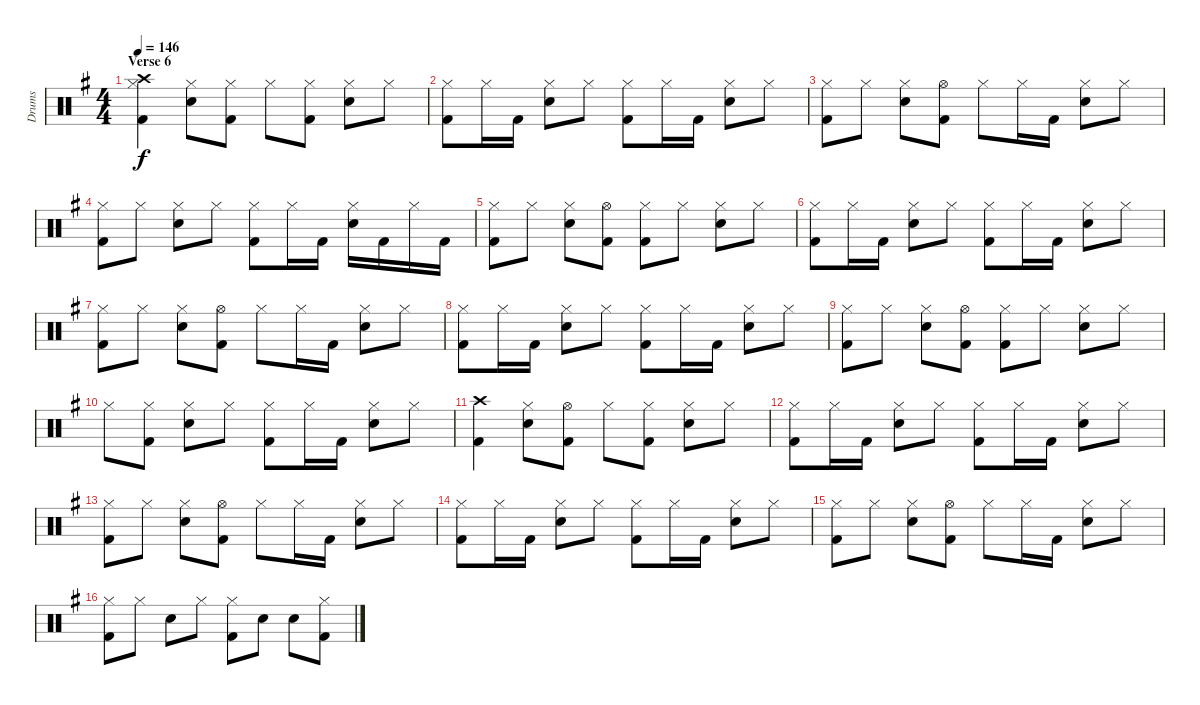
\track ("Drums" "Drums") {instrument percussion}
\staff {score}
\articulation defaults
\ts (4 4)
\section ("" "Verse 6")
\tempo 146
\clef neutral
\ks g
("Kick (hit) 2" "Hi-Hat (closed)" "Crash high (hit)").4{dy f} ("Snare (hit) 2" "Hi-Hat (closed)").8 ("Kick (hit) 2" "Hi-Hat (closed)").8 "Hi-Hat (closed)".8 ("Kick (hit) 2" "Hi-Hat (closed)").8 ("Snare (hit) 2" "Hi-Hat (closed)").8 "Hi-Hat (closed)".8 |
("Kick (hit) 2" "Hi-Hat (closed)").8 "Hi-Hat (closed)".16 "Kick (hit) 2".16 ("Snare (hit) 2" "Hi-Hat (closed)").8 "Hi-Hat (closed)".8 ("Kick (hit) 2" "Hi-Hat (closed)").8 "Hi-Hat (closed)".16 "Kick (hit) 2".16 ("Snare (hit) 2" "Hi-Hat (closed)").8 "Hi-Hat (closed)".8 |
("Kick (hit) 2" "Hi-Hat (closed)").8 "Hi-Hat (closed)".8 ("Snare (hit) 2" "Hi-Hat (closed)").8 ("Kick (hit) 2" "Hi-Hat (open)").8 "Hi-Hat (closed)".8 "Hi-Hat (closed)".16 "Kick (hit) 2".16 ("Snare (hit) 2" "Hi-Hat (closed)").8 "Hi-Hat (closed)".8 |
("Kick (hit) 2" "Hi-Hat (closed)").8 "Hi-Hat (closed)".8 ("Snare (hit) 2" "Hi-Hat (closed)").8 "Hi-Hat (closed)".8 ("Kick (hit) 2" "Hi-Hat (closed)").8 "Hi-Hat (closed)".16 "Kick (hit) 2".16 ("Snare (hit) 2" "Hi-Hat (closed)").16 "Kick (hit) 2".16 "Hi-Hat (closed)".16 "Kick (hit) 2".16 |
("Kick (hit) 2" "Hi-Hat (closed)").8 "Hi-Hat (closed)".8 ("Snare (hit) 2" "Hi-Hat (closed)").8 ("Kick (hit) 2" "Hi-Hat (open)").8 ("Kick (hit) 2" "Hi-Hat (closed)").8 "Hi-Hat (closed)".8 ("Snare (hit) 2" "Hi-Hat (closed)").8 "Hi-Hat (closed)".8 |
("Kick (hit) 2" "Hi-Hat (closed)").8 "Hi-Hat (closed)".16 "Kick (hit) 2".16 ("Snare (hit) 2" "Hi-Hat (closed)").8 "Hi-Hat (closed)".8 ("Kick (hit) 2" "Hi-Hat (closed)").8 "Hi-Hat (closed)".16 "Kick (hit) 2".16 ("Snare (hit) 2" "Hi-Hat (closed)").8 "Hi-Hat (closed)".8 |
("Kick (hit) 2" "Hi-Hat (closed)").8 "Hi-Hat (closed)".8 ("Snare (hit) 2" "Hi-Hat (closed)").8 ("Kick (hit) 2" "Hi-Hat (open)").8 "Hi-Hat (closed)".8 "Hi-Hat (closed)".16 "Kick (hit) 2".16 ("Snare (hit) 2" "Hi-Hat (closed)").8 "Hi-Hat (closed)".8 |
("Kick (hit) 2" "Hi-Hat (closed)").8 "Hi-Hat (closed)".16 "Kick (hit) 2".16 ("Snare (hit) 2" "Hi-Hat (closed)").8 "Hi-Hat (closed)".8 ("Kick (hit) 2" "Hi-Hat (closed)").8 "Hi-Hat (closed)".16 "Kick (hit) 2".16 ("Snare (hit) 2" "Hi-Hat (closed)").8 "Hi-Hat (closed)".8 |
("Kick (hit) 2" "Hi-Hat (closed)").8 "Hi-Hat (closed)".8 ("Snare (hit) 2" "Hi-Hat (closed)").8 ("Kick (hit) 2" "Hi-Hat (open)").8 ("Kick (hit) 2" "Hi-Hat (closed)").8 "Hi-Hat (closed)".8 ("Snare (hit) 2" "Hi-Hat (closed)").8 "Hi-Hat (closed)".8 |
"Hi-Hat (closed)".8 ("Kick (hit) 2" "Hi-Hat (closed)").8 ("Snare (hit) 2" "Hi-Hat (closed)").8 "Hi-Hat (closed)".8 ("Kick (hit) 2" "Hi-Hat (closed)").8 "Hi-Hat (closed)".16 "Kick (hit) 2".16 ("Snare (hit) 2" "Hi-Hat (closed)").8 "Hi-Hat (closed)".8 |
("Kick (hit) 2" "Crash high (hit)").4 ("Snare (hit) 2" "Hi-Hat (closed)").8 ("Kick (hit) 2" "Hi-Hat (open)").8 "Hi-Hat (closed)".8 ("Kick (hit) 2" "Hi-Hat (closed)").8 ("Snare (hit) 2" "Hi-Hat (closed)").8 "Hi-Hat (closed)".8 |
("Kick (hit) 2" "Hi-Hat (closed)").8 "Hi-Hat (closed)".16 "Kick (hit) 2".16 ("Snare (hit) 2" "Hi-Hat (closed)").8 "Hi-Hat (closed)".8 ("Kick (hit) 2" "Hi-Hat (closed)").8 "Hi-Hat (closed)".16 "Kick (hit) 2".16 ("Snare (hit) 2" "Hi-Hat (closed)").8 "Hi-Hat (closed)".8 |
("Kick (hit) 2" "Hi-Hat (closed)").8 "Hi-Hat (closed)".8 ("Snare (hit) 2" "Hi-Hat (closed)").8 ("Kick (hit) 2" "Hi-Hat (open)").8 "Hi-Hat (closed)".8 "Hi-Hat (closed)".16 "Kick (hit) 2".16 ("Snare (hit) 2" "Hi-Hat (closed)").8 "Hi-Hat (closed)".8 |
("Kick (hit) 2" "Hi-Hat (closed)").8 "Hi-Hat (closed)".16 "Kick (hit) 2".16 ("Snare (hit) 2" "Hi-Hat (closed)").8 "Hi-Hat (closed)".8 ("Kick (hit) 2" "Hi-Hat (closed)").8 "Hi-Hat (closed)".16 "Kick (hit) 2".16 ("Snare (hit) 2" "Hi-Hat (closed)").8 "Hi-Hat (closed)".8 |
("Kick (hit) 2" "Hi-Hat (closed)").8 "Hi-Hat (closed)".8 ("Snare (hit) 2" "Hi-Hat (closed)").8 ("Kick (hit) 2" "Hi-Hat (open)").8 "Hi-Hat (closed)".8 "Hi-Hat (closed)".16 "Kick (hit) 2".16 ("Snare (hit) 2" "Hi-Hat (closed)").8 "Hi-Hat (closed)".8 |
("Kick (hit) 2" "Hi-Hat (closed)").8 "Hi-Hat (closed)".8 "Snare (hit) 2".8 "Hi-Hat (closed)".8 ("Kick (hit) 2" "Hi-Hat (closed)").8 "Snare (hit) 2".8 "Snare (hit) 2".8 ("Kick (hit) 2" "Hi-Hat (closed)").8
